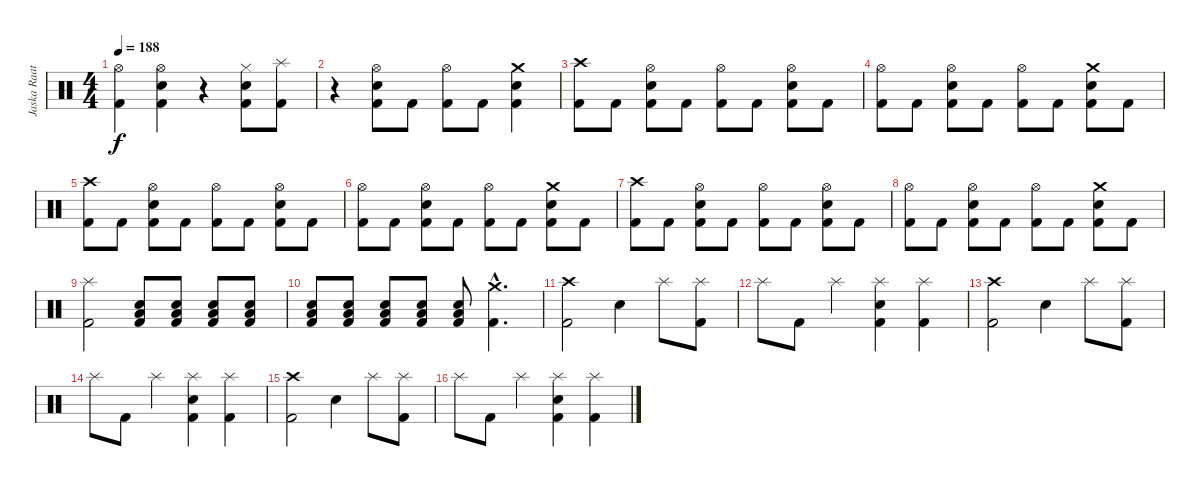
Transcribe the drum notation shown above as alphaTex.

\track ("Jaska Raatikainen" "Jaska Raat") {instrument percussion}
\staff {score}
\articulation defaults
\ts (4 4)
\tempo 188
\clef neutral
\ks c
("Hi-Hat (open)" "Kick (hit) 2").4{dy f} ("Hi-Hat (open)" "Electric Snare (hit)" "Kick (hit) 2").4 r.4 ("Hi-Hat (closed)" "Electric Snare (hit)" "Kick (hit) 2").8 ("Splash (hit)" "Kick (hit) 2").8 |
r.4 ("Hi-Hat (open)" "Electric Snare (hit)" "Kick (hit) 2").8 "Kick (hit) 2".8 ("Hi-Hat (open)" "Kick (hit) 2").8 "Kick (hit) 2".8 ("Crash medium (hit)" "Electric Snare (hit)" "Kick (hit) 2").4 |
("Crash high (hit)" "Kick (hit) 2").8 "Kick (hit) 2".8 ("Hi-Hat (open)" "Electric Snare (hit)" "Kick (hit) 2").8 "Kick (hit) 2".8 ("Hi-Hat (open)" "Kick (hit) 2").8 "Kick (hit) 2".8 ("Hi-Hat (open)" "Electric Snare (hit)" "Kick (hit) 2").8 "Kick (hit) 2".8 |
("Hi-Hat (open)" "Kick (hit) 2").8 "Kick (hit) 2".8 ("Hi-Hat (open)" "Electric Snare (hit)" "Kick (hit) 2").8 "Kick (hit) 2".8 ("Hi-Hat (open)" "Kick (hit) 2").8 "Kick (hit) 2".8 ("Crash medium (hit)" "Electric Snare (hit)" "Kick (hit) 2").8 "Kick (hit) 2".8 |
("Crash high (hit)" "Kick (hit) 2").8 "Kick (hit) 2".8 ("Hi-Hat (open)" "Electric Snare (hit)" "Kick (hit) 2").8 "Kick (hit) 2".8 ("Hi-Hat (open)" "Kick (hit) 2").8 "Kick (hit) 2".8 ("Hi-Hat (open)" "Electric Snare (hit)" "Kick (hit) 2").8 "Kick (hit) 2".8 |
("Hi-Hat (open)" "Kick (hit) 2").8 "Kick (hit) 2".8 ("Hi-Hat (open)" "Electric Snare (hit)" "Kick (hit) 2").8 "Kick (hit) 2".8 ("Hi-Hat (open)" "Kick (hit) 2").8 "Kick (hit) 2".8 ("Crash medium (hit)" "Electric Snare (hit)" "Kick (hit) 2").8 "Kick (hit) 2".8 |
("Crash high (hit)" "Kick (hit) 2").8 "Kick (hit) 2".8 ("Hi-Hat (open)" "Electric Snare (hit)" "Kick (hit) 2").8 "Kick (hit) 2".8 ("Hi-Hat (open)" "Kick (hit) 2").8 "Kick (hit) 2".8 ("Hi-Hat (open)" "Electric Snare (hit)" "Kick (hit) 2").8 "Kick (hit) 2".8 |
("Hi-Hat (open)" "Kick (hit) 2").8 "Kick (hit) 2".8 ("Hi-Hat (open)" "Electric Snare (hit)" "Kick (hit) 2").8 "Kick (hit) 2".8 ("Hi-Hat (open)" "Kick (hit) 2").8 "Kick (hit) 2".8 ("Crash medium (hit)" "Electric Snare (hit)" "Kick (hit) 2").8 "Kick (hit) 2".8 |
("Splash (hit)" "Kick (hit) 2").2 ("Electric Snare (hit)" "Low Tom (hit)" "Kick (hit) 2").8 ("Electric Snare (hit)" "Low Tom (hit)" "Kick (hit) 2").8 ("Electric Snare (hit)" "Low Tom (hit)" "Kick (hit) 2").8 ("Electric Snare (hit)" "Low Tom (hit)" "Kick (hit) 2").8 |
("Electric Snare (hit)" "Low Tom (hit)" "Kick (hit) 2").8 ("Electric Snare (hit)" "Low Tom (hit)" "Kick (hit) 2").8 ("Electric Snare (hit)" "Low Tom (hit)" "Kick (hit) 2").8 ("Electric Snare (hit)" "Low Tom (hit)" "Kick (hit) 2").8 ("Electric Snare (hit)" "Low Tom (hit)" "Kick (hit) 2").8 ("Crash medium (hit)"{hac} "Kick (hit) 2"{hac}).4{d} |
("Crash high (hit)" "Kick (hit) 2").2 "Electric Snare (hit)".4 "Splash (hit)".8 ("Splash (hit)" "Kick (hit) 2").8 |
"Splash (hit)".8 "Kick (hit) 2".8 "Splash (hit)".4 ("Splash (hit)" "Electric Snare (hit)" "Kick (hit) 2").4 ("Splash (hit)" "Kick (hit) 2").4 |
("Crash high (hit)" "Kick (hit) 2").2 "Electric Snare (hit)".4 "Splash (hit)".8 ("Splash (hit)" "Kick (hit) 2").8 |
"Splash (hit)".8 "Kick (hit) 2".8 "Splash (hit)".4 ("Splash (hit)" "Electric Snare (hit)" "Kick (hit) 2").4 ("Splash (hit)" "Kick (hit) 2").4 |
("Crash high (hit)" "Kick (hit) 2").2 "Electric Snare (hit)".4 "Splash (hit)".8 ("Splash (hit)" "Kick (hit) 2").8 |
"Splash (hit)".8 "Kick (hit) 2".8 "Splash (hit)".4 ("Splash (hit)" "Electric Snare (hit)" "Kick (hit) 2").4 ("Splash (hit)" "Kick (hit) 2").4
